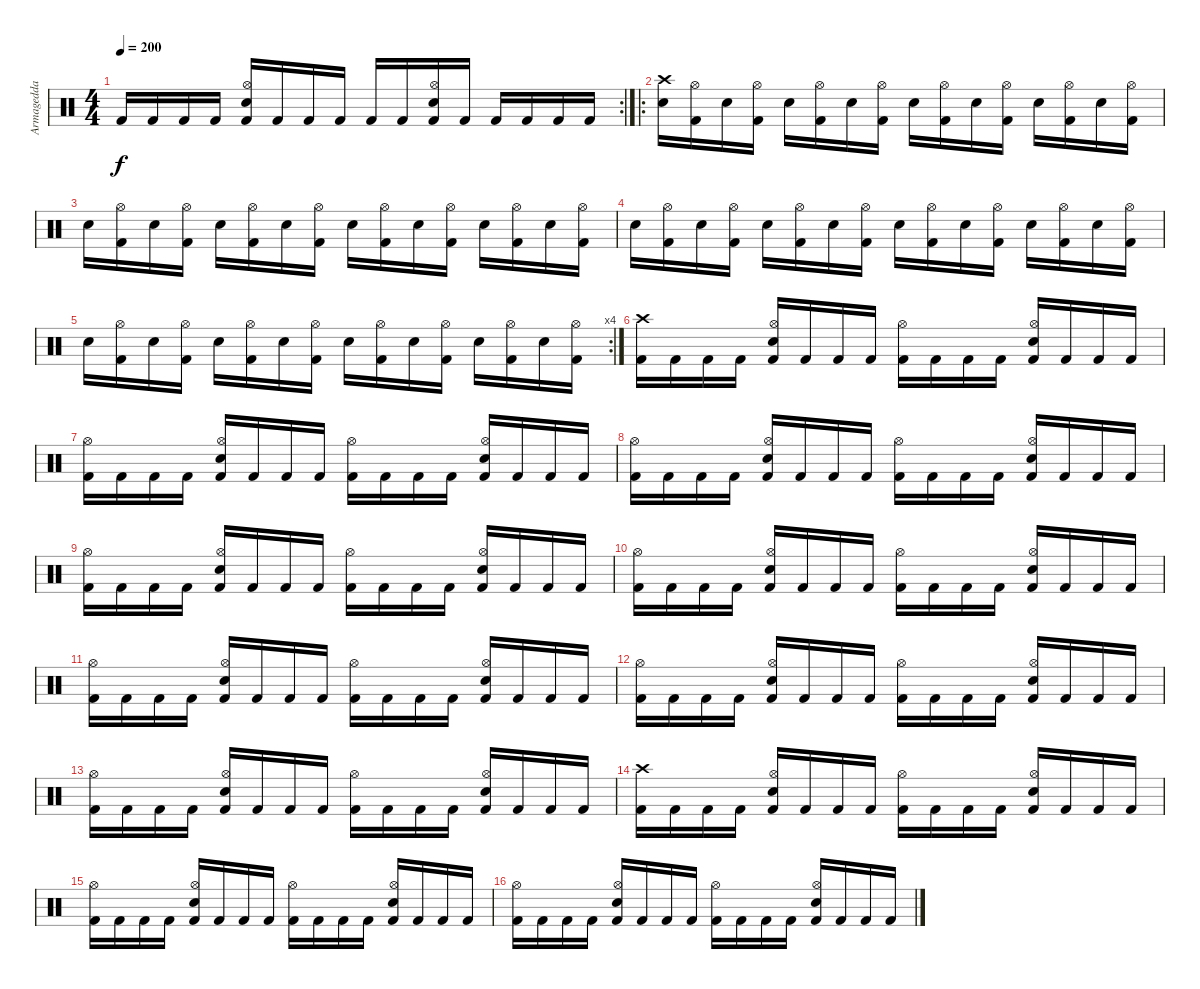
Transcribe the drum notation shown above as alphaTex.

\track ("Armagedda" "Armagedda") {instrument percussion}
\staff {score}
\articulation defaults
\rc 2
\ts (4 4)
\tempo 200
\clef neutral
\ks c "Kick (hit) 2".16{dy f} "Kick (hit) 2".16 "Kick (hit) 2".16 "Kick (hit) 2".16
("Hi-Hat (open)" "Electric Snare (hit)" "Kick (hit) 2").16 "Kick (hit) 2".16 "Kick (hit) 2".16 "Kick (hit) 2".16 "Kick (hit) 2".16 "Kick (hit) 2".16 ("Hi-Hat (open)" "Electric Snare (hit)" "Kick (hit) 2").16 "Kick (hit) 2".16 "Kick (hit) 2".16 "Kick (hit) 2".16 "Kick (hit) 2".16 "Kick (hit) 2".16 |
\ro
("Crash high (hit)" "Snare (hit) 2").16 ("Hi-Hat (open)" "Kick (hit) 2").16 "Snare (hit) 2".16 ("Hi-Hat (open)" "Kick (hit) 2").16 "Snare (hit) 2".16 ("Hi-Hat (open)" "Kick (hit) 2").16 "Snare (hit) 2".16 ("Hi-Hat (open)" "Kick (hit) 2").16 "Snare (hit) 2".16 ("Hi-Hat (open)" "Kick (hit) 2").16 "Snare (hit) 2".16 ("Hi-Hat (open)" "Kick (hit) 2").16 "Snare (hit) 2".16 ("Hi-Hat (open)" "Kick (hit) 2").16 "Snare (hit) 2".16 ("Hi-Hat (open)" "Kick (hit) 2").16 |
"Snare (hit) 2".16 ("Hi-Hat (open)" "Kick (hit) 2").16 "Snare (hit) 2".16 ("Hi-Hat (open)" "Kick (hit) 2").16 "Snare (hit) 2".16 ("Hi-Hat (open)" "Kick (hit) 2").16 "Snare (hit) 2".16 ("Hi-Hat (open)" "Kick (hit) 2").16 "Snare (hit) 2".16 ("Hi-Hat (open)" "Kick (hit) 2").16 "Snare (hit) 2".16 ("Hi-Hat (open)" "Kick (hit) 2").16 "Snare (hit) 2".16 ("Hi-Hat (open)" "Kick (hit) 2").16 "Snare (hit) 2".16 ("Hi-Hat (open)" "Kick (hit) 2").16 |
"Snare (hit) 2".16 ("Hi-Hat (open)" "Kick (hit) 2").16 "Snare (hit) 2".16 ("Hi-Hat (open)" "Kick (hit) 2").16 "Snare (hit) 2".16 ("Hi-Hat (open)" "Kick (hit) 2").16 "Snare (hit) 2".16 ("Hi-Hat (open)" "Kick (hit) 2").16 "Snare (hit) 2".16 ("Hi-Hat (open)" "Kick (hit) 2").16 "Snare (hit) 2".16 ("Hi-Hat (open)" "Kick (hit) 2").16 "Snare (hit) 2".16 ("Hi-Hat (open)" "Kick (hit) 2").16 "Snare (hit) 2".16 ("Hi-Hat (open)" "Kick (hit) 2").16 |
\rc 4 "Snare (hit) 2".16
("Hi-Hat (open)" "Kick (hit) 2").16 "Snare (hit) 2".16 ("Hi-Hat (open)" "Kick (hit) 2").16 "Snare (hit) 2".16 ("Hi-Hat (open)" "Kick (hit) 2").16 "Snare (hit) 2".16 ("Hi-Hat (open)" "Kick (hit) 2").16 "Snare (hit) 2".16 ("Hi-Hat (open)" "Kick (hit) 2").16 "Snare (hit) 2".16 ("Hi-Hat (open)" "Kick (hit) 2").16 "Snare (hit) 2".16 ("Hi-Hat (open)" "Kick (hit) 2").16 "Snare (hit) 2".16 ("Hi-Hat (open)" "Kick (hit) 2").16 |
("Crash high (hit)" "Kick (hit) 2").16 "Kick (hit) 2".16 "Kick (hit) 2".16 "Kick (hit) 2".16 ("Hi-Hat (open)" "Electric Snare (hit)" "Kick (hit) 2").16 "Kick (hit) 2".16 "Kick (hit) 2".16 "Kick (hit) 2".16 ("Hi-Hat (open)" "Kick (hit) 2").16 "Kick (hit) 2".16 "Kick (hit) 2".16 "Kick (hit) 2".16 ("Hi-Hat (open)" "Electric Snare (hit)" "Kick (hit) 2").16 "Kick (hit) 2".16 "Kick (hit) 2".16 "Kick (hit) 2".16 |
("Hi-Hat (open)" "Kick (hit) 2").16 "Kick (hit) 2".16 "Kick (hit) 2".16 "Kick (hit) 2".16 ("Hi-Hat (open)" "Electric Snare (hit)" "Kick (hit) 2").16 "Kick (hit) 2".16 "Kick (hit) 2".16 "Kick (hit) 2".16 ("Hi-Hat (open)" "Kick (hit) 2").16 "Kick (hit) 2".16 "Kick (hit) 2".16 "Kick (hit) 2".16 ("Hi-Hat (open)" "Electric Snare (hit)" "Kick (hit) 2").16 "Kick (hit) 2".16 "Kick (hit) 2".16 "Kick (hit) 2".16 |
("Hi-Hat (open)" "Kick (hit) 2").16 "Kick (hit) 2".16 "Kick (hit) 2".16 "Kick (hit) 2".16 ("Hi-Hat (open)" "Electric Snare (hit)" "Kick (hit) 2").16 "Kick (hit) 2".16 "Kick (hit) 2".16 "Kick (hit) 2".16 ("Hi-Hat (open)" "Kick (hit) 2").16 "Kick (hit) 2".16 "Kick (hit) 2".16 "Kick (hit) 2".16 ("Hi-Hat (open)" "Electric Snare (hit)" "Kick (hit) 2").16 "Kick (hit) 2".16 "Kick (hit) 2".16 "Kick (hit) 2".16 |
("Hi-Hat (open)" "Kick (hit) 2").16 "Kick (hit) 2".16 "Kick (hit) 2".16 "Kick (hit) 2".16 ("Hi-Hat (open)" "Electric Snare (hit)" "Kick (hit) 2").16 "Kick (hit) 2".16 "Kick (hit) 2".16 "Kick (hit) 2".16 ("Hi-Hat (open)" "Kick (hit) 2").16 "Kick (hit) 2".16 "Kick (hit) 2".16 "Kick (hit) 2".16 ("Hi-Hat (open)" "Electric Snare (hit)" "Kick (hit) 2").16 "Kick (hit) 2".16 "Kick (hit) 2".16 "Kick (hit) 2".16 |
("Hi-Hat (open)" "Kick (hit) 2").16 "Kick (hit) 2".16 "Kick (hit) 2".16 "Kick (hit) 2".16 ("Hi-Hat (open)" "Electric Snare (hit)" "Kick (hit) 2").16 "Kick (hit) 2".16 "Kick (hit) 2".16 "Kick (hit) 2".16 ("Hi-Hat (open)" "Kick (hit) 2").16 "Kick (hit) 2".16 "Kick (hit) 2".16 "Kick (hit) 2".16 ("Hi-Hat (open)" "Electric Snare (hit)" "Kick (hit) 2").16 "Kick (hit) 2".16 "Kick (hit) 2".16 "Kick (hit) 2".16 |
("Hi-Hat (open)" "Kick (hit) 2").16 "Kick (hit) 2".16 "Kick (hit) 2".16 "Kick (hit) 2".16 ("Hi-Hat (open)" "Electric Snare (hit)" "Kick (hit) 2").16 "Kick (hit) 2".16 "Kick (hit) 2".16 "Kick (hit) 2".16 ("Hi-Hat (open)" "Kick (hit) 2").16 "Kick (hit) 2".16 "Kick (hit) 2".16 "Kick (hit) 2".16 ("Hi-Hat (open)" "Electric Snare (hit)" "Kick (hit) 2").16 "Kick (hit) 2".16 "Kick (hit) 2".16 "Kick (hit) 2".16 |
("Hi-Hat (open)" "Kick (hit) 2").16 "Kick (hit) 2".16 "Kick (hit) 2".16 "Kick (hit) 2".16 ("Hi-Hat (open)" "Electric Snare (hit)" "Kick (hit) 2").16 "Kick (hit) 2".16 "Kick (hit) 2".16 "Kick (hit) 2".16 ("Hi-Hat (open)" "Kick (hit) 2").16 "Kick (hit) 2".16 "Kick (hit) 2".16 "Kick (hit) 2".16 ("Hi-Hat (open)" "Electric Snare (hit)" "Kick (hit) 2").16 "Kick (hit) 2".16 "Kick (hit) 2".16 "Kick (hit) 2".16 |
("Hi-Hat (open)" "Kick (hit) 2").16 "Kick (hit) 2".16 "Kick (hit) 2".16 "Kick (hit) 2".16 ("Hi-Hat (open)" "Electric Snare (hit)" "Kick (hit) 2").16 "Kick (hit) 2".16 "Kick (hit) 2".16 "Kick (hit) 2".16 ("Hi-Hat (open)" "Kick (hit) 2").16 "Kick (hit) 2".16 "Kick (hit) 2".16 "Kick (hit) 2".16 ("Hi-Hat (open)" "Electric Snare (hit)" "Kick (hit) 2").16 "Kick (hit) 2".16 "Kick (hit) 2".16 "Kick (hit) 2".16 |
("Crash high (hit)" "Kick (hit) 2").16 "Kick (hit) 2".16 "Kick (hit) 2".16 "Kick (hit) 2".16 ("Hi-Hat (open)" "Electric Snare (hit)" "Kick (hit) 2").16 "Kick (hit) 2".16 "Kick (hit) 2".16 "Kick (hit) 2".16 ("Hi-Hat (open)" "Kick (hit) 2").16 "Kick (hit) 2".16 "Kick (hit) 2".16 "Kick (hit) 2".16 ("Hi-Hat (open)" "Electric Snare (hit)" "Kick (hit) 2").16 "Kick (hit) 2".16 "Kick (hit) 2".16 "Kick (hit) 2".16 |
("Hi-Hat (open)" "Kick (hit) 2").16 "Kick (hit) 2".16 "Kick (hit) 2".16 "Kick (hit) 2".16 ("Hi-Hat (open)" "Electric Snare (hit)" "Kick (hit) 2").16 "Kick (hit) 2".16 "Kick (hit) 2".16 "Kick (hit) 2".16 ("Hi-Hat (open)" "Kick (hit) 2").16 "Kick (hit) 2".16 "Kick (hit) 2".16 "Kick (hit) 2".16 ("Hi-Hat (open)" "Electric Snare (hit)" "Kick (hit) 2").16 "Kick (hit) 2".16 "Kick (hit) 2".16 "Kick (hit) 2".16 |
("Hi-Hat (open)" "Kick (hit) 2").16 "Kick (hit) 2".16 "Kick (hit) 2".16 "Kick (hit) 2".16 ("Hi-Hat (open)" "Electric Snare (hit)" "Kick (hit) 2").16 "Kick (hit) 2".16 "Kick (hit) 2".16 "Kick (hit) 2".16 ("Hi-Hat (open)" "Kick (hit) 2").16 "Kick (hit) 2".16 "Kick (hit) 2".16 "Kick (hit) 2".16 ("Hi-Hat (open)" "Electric Snare (hit)" "Kick (hit) 2").16 "Kick (hit) 2".16 "Kick (hit) 2".16 "Kick (hit) 2".16
